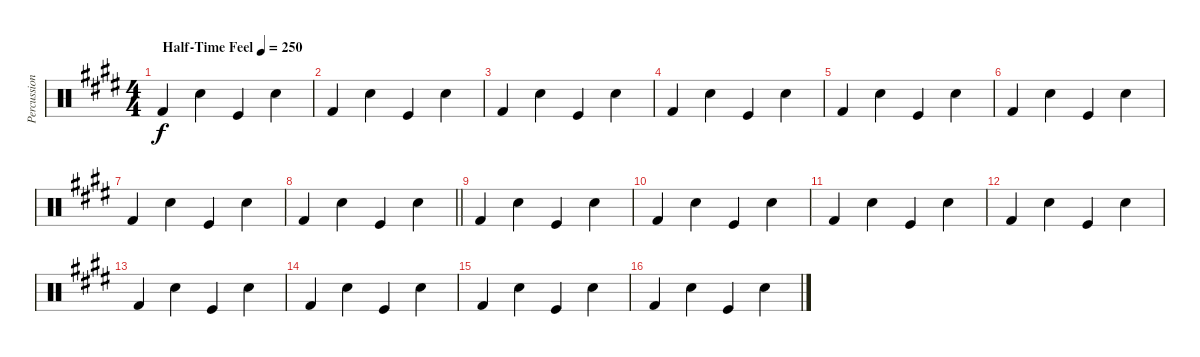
\track ("Percussion" "Percussion") {instrument percussion}
\staff {score}
\articulation defaults
\ts (4 4)
\tempo (250 "Half-Time Feel")
\clef neutral
\ks e "Kick (hit) 2".4{dy f} "Snare (hit) 2".4 "Kick (hit)".4 "Snare (hit) 2".4
|
"Kick (hit) 2".4 "Snare (hit) 2".4 "Kick (hit)".4 "Snare (hit) 2".4 |
"Kick (hit) 2".4 "Snare (hit) 2".4 "Kick (hit)".4 "Snare (hit) 2".4 |
"Kick (hit) 2".4 "Snare (hit) 2".4 "Kick (hit)".4 "Snare (hit) 2".4 |
"Kick (hit) 2".4 "Snare (hit) 2".4 "Kick (hit)".4 "Snare (hit) 2".4 |
"Kick (hit) 2".4 "Snare (hit) 2".4 "Kick (hit)".4 "Snare (hit) 2".4 |
"Kick (hit) 2".4 "Snare (hit) 2".4 "Kick (hit)".4 "Snare (hit) 2".4 |
\barLineRight lightlight "Kick (hit) 2".4 "Snare (hit) 2".4 "Kick (hit)".4 "Snare (hit) 2".4
|
"Kick (hit) 2".4 "Snare (hit) 2".4 "Kick (hit)".4 "Snare (hit) 2".4 |
"Kick (hit) 2".4 "Snare (hit) 2".4 "Kick (hit)".4 "Snare (hit) 2".4 |
"Kick (hit) 2".4 "Snare (hit) 2".4 "Kick (hit)".4 "Snare (hit) 2".4 |
"Kick (hit) 2".4 "Snare (hit) 2".4 "Kick (hit)".4 "Snare (hit) 2".4 |
"Kick (hit) 2".4 "Snare (hit) 2".4 "Kick (hit)".4 "Snare (hit) 2".4 |
"Kick (hit) 2".4 "Snare (hit) 2".4 "Kick (hit)".4 "Snare (hit) 2".4 |
"Kick (hit) 2".4 "Snare (hit) 2".4 "Kick (hit)".4 "Snare (hit) 2".4 |
"Kick (hit) 2".4 "Snare (hit) 2".4 "Kick (hit)".4 "Snare (hit) 2".4
